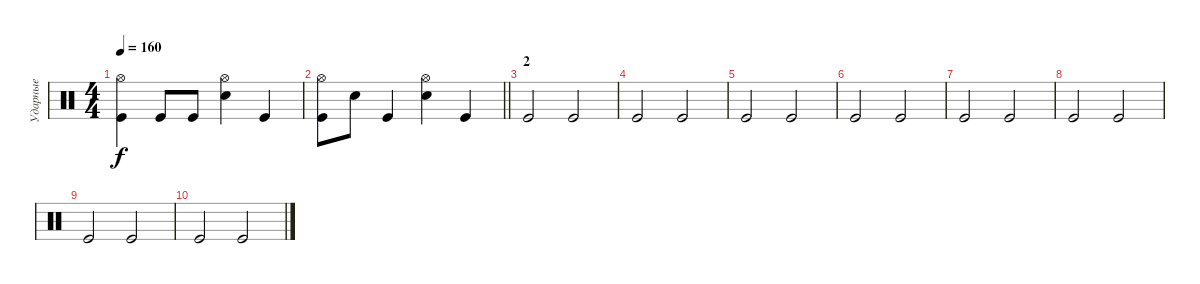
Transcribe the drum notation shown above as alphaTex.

\track ("Ударные" "Ударные") {instrument percussion}
\staff {score}
\articulation defaults
\ts (4 4)
\tempo 160
\clef neutral
\ks c
("Kick (hit)" "Hi-Hat (open)").4{dy f} "Kick (hit)".8 "Kick (hit)".8 ("Electric Snare (hit)" "Hi-Hat (open)").4 "Kick (hit)".4 |
\barLineRight lightlight
("Kick (hit)" "Hi-Hat (open)").8 "Electric Snare (hit)".8 "Kick (hit)".4 ("Electric Snare (hit)" "Hi-Hat (open)").4 "Kick (hit)".4 |
\section ("" "2")
"Kick (hit)".2 "Kick (hit)".2 |
"Kick (hit)".2 "Kick (hit)".2 |
"Kick (hit)".2 "Kick (hit)".2 |
"Kick (hit)".2 "Kick (hit)".2 |
"Kick (hit)".2 "Kick (hit)".2 |
"Kick (hit)".2 "Kick (hit)".2 |
"Kick (hit)".2 "Kick (hit)".2 |
"Kick (hit)".2 "Kick (hit)".2
